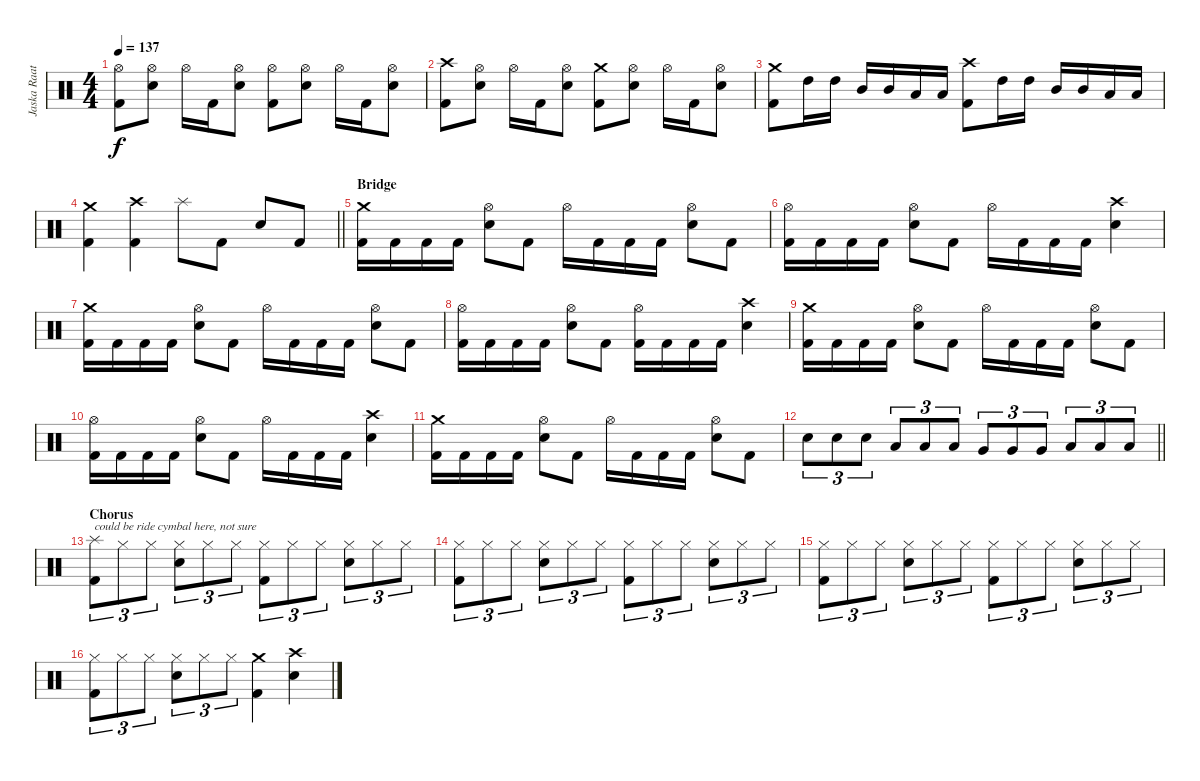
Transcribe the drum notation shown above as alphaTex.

\track ("Jaska Raatikainen" "Jaska Raat") {instrument percussion}
\staff {score}
\articulation defaults
\ts (4 4)
\tempo 137
\clef neutral
\ks c
("Hi-Hat (open)" "Kick (hit) 2").8{dy f} ("Hi-Hat (open)" "Electric Snare (hit)").8 "Hi-Hat (open)".16 "Kick (hit) 2".16 ("Hi-Hat (open)" "Electric Snare (hit)").8 ("Hi-Hat (open)" "Kick (hit) 2").8 ("Hi-Hat (open)" "Electric Snare (hit)").8 "Hi-Hat (open)".16 "Kick (hit) 2".16 ("Hi-Hat (open)" "Electric Snare (hit)").8 |
("Crash high (hit)" "Kick (hit) 2").8 ("Hi-Hat (open)" "Electric Snare (hit)").8 "Hi-Hat (open)".16 "Kick (hit) 2".16 ("Hi-Hat (open)" "Electric Snare (hit)").8 ("Crash medium (hit)" "Kick (hit) 2").8 ("Hi-Hat (open)" "Electric Snare (hit)").8 "Hi-Hat (open)".16 "Kick (hit) 2".16 ("Hi-Hat (open)" "Electric Snare (hit)").8 |
("Crash medium (hit)" "Kick (hit) 2").8 "High Tom (hit)".16 "High Tom (hit)".16 "Mid Tom (hit)".16 "Mid Tom (hit)".16 "Low Tom (hit)".16 "Low Tom (hit)".16 ("Crash high (hit)" "Kick (hit) 2").8 "High Tom (hit)".16 "High Tom (hit)".16 "Mid Tom (hit)".16 "Mid Tom (hit)".16 "Low Tom (hit)".16 "Low Tom (hit)".16 |
\barLineRight lightlight
("Crash medium (hit)" "Kick (hit) 2").4 ("Crash high (hit)" "Kick (hit) 2").4 "Splash (hit)".8 "Kick (hit) 2".8 "Electric Snare (hit)".8 "Kick (hit) 2".8 |
\section ("" "Bridge")
("Crash medium (hit)" "Kick (hit) 2").16 "Kick (hit) 2".16 "Kick (hit) 2".16 "Kick (hit) 2".16 ("Hi-Hat (open)" "Electric Snare (hit)").8 "Kick (hit) 2".8 "Hi-Hat (open)".16 "Kick (hit) 2".16 "Kick (hit) 2".16 "Kick (hit) 2".16 ("Hi-Hat (open)" "Electric Snare (hit)").8 "Kick (hit) 2".8 |
("Hi-Hat (open)" "Kick (hit) 2").16 "Kick (hit) 2".16 "Kick (hit) 2".16 "Kick (hit) 2".16 ("Hi-Hat (open)" "Electric Snare (hit)").8 "Kick (hit) 2".8 "Hi-Hat (open)".16 "Kick (hit) 2".16 "Kick (hit) 2".16 "Kick (hit) 2".16 ("Crash high (hit)" "Electric Snare (hit)").4 |
("Crash medium (hit)" "Kick (hit) 2").16 "Kick (hit) 2".16 "Kick (hit) 2".16 "Kick (hit) 2".16 ("Hi-Hat (open)" "Electric Snare (hit)").8 "Kick (hit) 2".8 "Hi-Hat (open)".16 "Kick (hit) 2".16 "Kick (hit) 2".16 "Kick (hit) 2".16 ("Hi-Hat (open)" "Electric Snare (hit)").8 "Kick (hit) 2".8 |
("Hi-Hat (open)" "Kick (hit) 2").16 "Kick (hit) 2".16 "Kick (hit) 2".16 "Kick (hit) 2".16 ("Hi-Hat (open)" "Electric Snare (hit)").8 "Kick (hit) 2".8 ("Hi-Hat (open)" "Kick (hit) 2").16 "Kick (hit) 2".16 "Kick (hit) 2".16 "Kick (hit) 2".16 ("Crash high (hit)" "Electric Snare (hit)").4 |
("Crash medium (hit)" "Kick (hit) 2").16 "Kick (hit) 2".16 "Kick (hit) 2".16 "Kick (hit) 2".16 ("Hi-Hat (open)" "Electric Snare (hit)").8 "Kick (hit) 2".8 "Hi-Hat (open)".16 "Kick (hit) 2".16 "Kick (hit) 2".16 "Kick (hit) 2".16 ("Hi-Hat (open)" "Electric Snare (hit)").8 "Kick (hit) 2".8 |
("Hi-Hat (open)" "Kick (hit) 2").16 "Kick (hit) 2".16 "Kick (hit) 2".16 "Kick (hit) 2".16 ("Hi-Hat (open)" "Electric Snare (hit)").8 "Kick (hit) 2".8 "Hi-Hat (open)".16 "Kick (hit) 2".16 "Kick (hit) 2".16 "Kick (hit) 2".16 ("Crash high (hit)" "Electric Snare (hit)").4 |
("Crash medium (hit)" "Kick (hit) 2").16 "Kick (hit) 2".16 "Kick (hit) 2".16 "Kick (hit) 2".16 ("Hi-Hat (open)" "Electric Snare (hit)").8 "Kick (hit) 2".8 "Hi-Hat (open)".16 "Kick (hit) 2".16 "Kick (hit) 2".16 "Kick (hit) 2".16 ("Hi-Hat (open)" "Electric Snare (hit)").8 "Kick (hit) 2".8 |
\barLineRight lightlight "Electric Snare (hit)".8{tu (3 2)} "Electric Snare (hit)".8{tu (3 2)} "Electric Snare (hit)".8{tu (3 2)} "Low Tom (hit)".8{tu (3 2)} "Low Tom (hit)".8{tu (3 2)} "Low Tom (hit)".8{tu (3 2)} "Very Low Tom (hit)".8{tu (3 2)} "Very Low Tom (hit)".8{tu (3 2)} "Very Low Tom (hit)".8{tu (3 2)} "Low Floor Tom (hit)".8{tu (3 2)} "Low Floor Tom (hit)".8{tu (3 2)} "Low Floor Tom (hit)".8{tu (3 2)}
|
\section ("" "Chorus")
("Splash (hit)" "Kick (hit) 2").8{tu (3 2) txt "could be ride cymbal here, not sure"} "Hi-Hat (closed)".8{tu (3 2)} "Hi-Hat (closed)".8{tu (3 2)} ("Hi-Hat (closed)" "Electric Snare (hit)").8{tu (3 2)} "Hi-Hat (closed)".8{tu (3 2)} "Hi-Hat (closed)".8{tu (3 2)} ("Hi-Hat (closed)" "Kick (hit) 2").8{tu (3 2)} "Hi-Hat (closed)".8{tu (3 2)} "Hi-Hat (closed)".8{tu (3 2)} ("Hi-Hat (closed)" "Electric Snare (hit)").8{tu (3 2)} "Hi-Hat (closed)".8{tu (3 2)} "Hi-Hat (closed)".8{tu (3 2)} |
("Hi-Hat (closed)" "Kick (hit) 2").8{tu (3 2)} "Hi-Hat (closed)".8{tu (3 2)} "Hi-Hat (closed)".8{tu (3 2)} ("Hi-Hat (closed)" "Electric Snare (hit)").8{tu (3 2)} "Hi-Hat (closed)".8{tu (3 2)} "Hi-Hat (closed)".8{tu (3 2)} ("Hi-Hat (closed)" "Kick (hit) 2").8{tu (3 2)} "Hi-Hat (closed)".8{tu (3 2)} "Hi-Hat (closed)".8{tu (3 2)} ("Hi-Hat (closed)" "Electric Snare (hit)").8{tu (3 2)} "Hi-Hat (closed)".8{tu (3 2)} "Hi-Hat (closed)".8{tu (3 2)} |
("Hi-Hat (closed)" "Kick (hit) 2").8{tu (3 2)} "Hi-Hat (closed)".8{tu (3 2)} "Hi-Hat (closed)".8{tu (3 2)} ("Hi-Hat (closed)" "Electric Snare (hit)").8{tu (3 2)} "Hi-Hat (closed)".8{tu (3 2)} "Hi-Hat (closed)".8{tu (3 2)} ("Hi-Hat (closed)" "Kick (hit) 2").8{tu (3 2)} "Hi-Hat (closed)".8{tu (3 2)} "Hi-Hat (closed)".8{tu (3 2)} ("Hi-Hat (closed)" "Electric Snare (hit)").8{tu (3 2)} "Hi-Hat (closed)".8{tu (3 2)} "Hi-Hat (closed)".8{tu (3 2)} |
("Hi-Hat (closed)" "Kick (hit) 2").8{tu (3 2)} "Hi-Hat (closed)".8{tu (3 2)} "Hi-Hat (closed)".8{tu (3 2)} ("Hi-Hat (closed)" "Electric Snare (hit)").8{tu (3 2)} "Hi-Hat (closed)".8{tu (3 2)} "Hi-Hat (closed)".8{tu (3 2)} ("Crash medium (hit)" "Kick (hit) 2").4 ("Crash high (hit)" "Electric Snare (hit)").4
